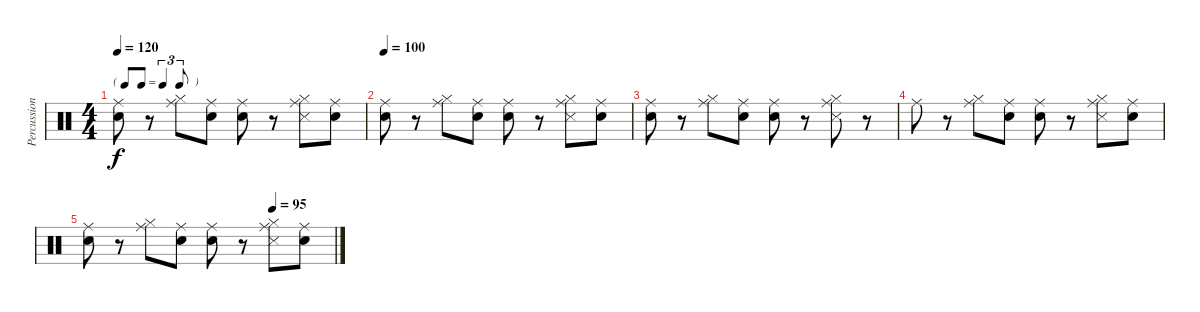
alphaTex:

\track ("Percussions" "Percussion") {instrument percussion}
\staff {score}
\articulation defaults
\ts (4 4)
\tf triplet8th
\tempo 120
\clef neutral
\ks c
("Snare (hit)" "Ride (middle)").8{dy f} r.8 ("Hi-Hat (closed)" "Ride (middle)").8 ("Snare (hit)" "Ride (middle)").8 ("Snare (hit)" "Ride (middle)").8 r.8 ("Hi-Hat (closed)" "Snare (side stick) 3" "Ride (middle)").8 ("Snare (hit)" "Ride (middle)").8 |
\tempo 100
("Snare (hit)" "Ride (middle)").8 r.8 ("Hi-Hat (closed)" "Ride (middle)").8 ("Snare (hit)" "Ride (middle)").8 ("Snare (hit)" "Ride (middle)").8 r.8 ("Hi-Hat (closed)" "Snare (side stick) 3" "Ride (middle)").8 ("Snare (hit)" "Ride (middle)").8 |
("Snare (hit)" "Ride (middle)").8 r.8 ("Hi-Hat (closed)" "Ride (middle)").8 ("Snare (hit)" "Ride (middle)").8 ("Snare (hit)" "Ride (middle)").8 r.8 ("Hi-Hat (closed)" "Snare (side stick) 3" "Ride (middle)").8 r.8 |
"Ride (middle)".8 r.8 ("Hi-Hat (closed)" "Ride (middle)").8 ("Snare (hit)" "Ride (middle)").8 ("Snare (hit)" "Ride (middle)").8 r.8 ("Hi-Hat (closed)" "Snare (side stick) 3" "Ride (middle)").8 ("Snare (hit)" "Ride (middle)").8 |
\tempo (95 0.75)
("Snare (hit)" "Ride (middle)").8 r.8 ("Hi-Hat (closed)" "Ride (middle)").8 ("Snare (hit)" "Ride (middle)").8 ("Snare (hit)" "Ride (middle)").8 r.8 ("Hi-Hat (closed)" "Snare (side stick) 3" "Ride (middle)").8 ("Snare (hit)" "Ride (middle)").8
